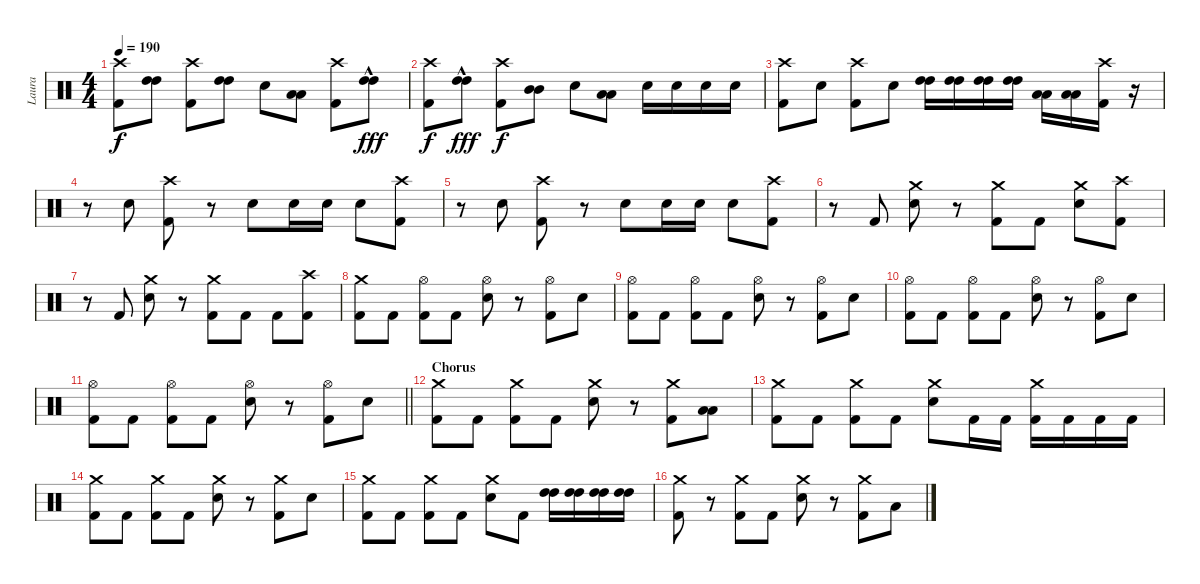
\track ("Laura" "Laura") {instrument percussion}
\staff {score}
\articulation defaults
\ts (4 4)
\tempo 190
\clef neutral
\ks c
("Crash high (hit)" "Kick (hit) 2").8{dy f} ("High Tom (hit)" "High Tom (hit)").8 ("Crash high (hit)" "Kick (hit) 2").8 ("High Tom (hit)" "High Tom (hit)").8 "Electric Snare (hit)".8 ("Low Floor Tom (hit)" "Low Floor Tom (hit)").8 ("Crash high (hit)" "Kick (hit) 2").8 ("High Tom (hit)"{hac} "High Tom (hit)"{hac}).8{dy fff} |
("Crash high (hit)" "Kick (hit) 2").8{dy f} ("High Tom (hit)"{hac} "High Tom (hit)"{hac}).8{dy fff} ("Crash high (hit)" "Kick (hit) 2").8{dy f} ("Mid Tom (hit)" "Mid Tom (hit)").8 "Electric Snare (hit)".8 ("Low Tom (hit)" "Low Tom (hit)").8 "Electric Snare (hit)".16 "Electric Snare (hit)".16 "Electric Snare (hit)".16 "Electric Snare (hit)".16 |
("Crash high (hit)" "Kick (hit) 2").8 "Electric Snare (hit)".8 ("Crash high (hit)" "Kick (hit) 2").8 "Electric Snare (hit)".8 ("High Tom (hit)" "High Tom (hit)").16 ("High Tom (hit)" "High Tom (hit)").16 ("High Tom (hit)" "High Tom (hit)").16 ("High Tom (hit)" "High Tom (hit)").16 ("Low Tom (hit)" "Low Tom (hit)").16 ("Low Tom (hit)" "Low Tom (hit)").16 ("Crash high (hit)" "Kick (hit) 2").16 r.16 |
r.8 "Electric Snare (hit)".8 ("Crash high (hit)" "Kick (hit) 2").8 r.8 "Electric Snare (hit)".8 "Electric Snare (hit)".16 "Electric Snare (hit)".16 "Electric Snare (hit)".8 ("Crash high (hit)" "Kick (hit) 2").8 |
r.8 "Electric Snare (hit)".8 ("Crash high (hit)" "Kick (hit) 2").8 r.8 "Electric Snare (hit)".8 "Electric Snare (hit)".16 "Electric Snare (hit)".16 "Electric Snare (hit)".8 ("Crash high (hit)" "Kick (hit) 2").8 |
r.8 "Kick (hit) 2".8 ("Crash medium (hit)" "Electric Snare (hit)").8 r.8 ("Crash medium (hit)" "Kick (hit) 2").8 "Kick (hit) 2".8 ("Crash medium (hit)" "Electric Snare (hit)").8 ("Crash high (hit)" "Kick (hit) 2").8 |
r.8 "Kick (hit) 2".8 ("Crash medium (hit)" "Electric Snare (hit)").8 r.8 ("Crash medium (hit)" "Kick (hit) 2").8 "Kick (hit) 2".8 "Kick (hit) 2".8 ("Crash high (hit)" "Kick (hit) 2").8 |
("Crash medium (hit)" "Kick (hit) 2").8 "Kick (hit) 2".8 ("Hi-Hat (open)" "Kick (hit) 2").8 "Kick (hit) 2".8 ("Hi-Hat (open)" "Electric Snare (hit)").8 r.8 ("Hi-Hat (open)" "Kick (hit) 2").8 "Electric Snare (hit)".8 |
("Hi-Hat (open)" "Kick (hit) 2").8 "Kick (hit) 2".8 ("Hi-Hat (open)" "Kick (hit) 2").8 "Kick (hit) 2".8 ("Hi-Hat (open)" "Electric Snare (hit)").8 r.8 ("Hi-Hat (open)" "Kick (hit) 2").8 "Electric Snare (hit)".8 |
("Hi-Hat (open)" "Kick (hit) 2").8 "Kick (hit) 2".8 ("Hi-Hat (open)" "Kick (hit) 2").8 "Kick (hit) 2".8 ("Hi-Hat (open)" "Electric Snare (hit)").8 r.8 ("Hi-Hat (open)" "Kick (hit) 2").8 "Electric Snare (hit)".8 |
\barLineRight lightlight
("Hi-Hat (open)" "Kick (hit) 2").8 "Kick (hit) 2".8 ("Hi-Hat (open)" "Kick (hit) 2").8 "Kick (hit) 2".8 ("Hi-Hat (open)" "Electric Snare (hit)").8 r.8 ("Hi-Hat (open)" "Kick (hit) 2").8 "Electric Snare (hit)".8 |
\section ("" "Chorus")
("Crash medium (hit)" "Kick (hit) 2").8 "Kick (hit) 2".8 ("Crash medium (hit)" "Kick (hit) 2").8 "Kick (hit) 2".8 ("Crash medium (hit)" "Electric Snare (hit)").8 r.8 ("Crash medium (hit)" "Kick (hit) 2").8 ("Low Tom (hit)" "Low Tom (hit)").8 |
("Crash medium (hit)" "Kick (hit) 2").8 "Kick (hit) 2".8 ("Crash medium (hit)" "Kick (hit) 2").8 "Kick (hit) 2".8 ("Crash medium (hit)" "Electric Snare (hit)").8 "Kick (hit) 2".16 "Kick (hit) 2".16 ("Crash medium (hit)" "Kick (hit) 2").16 "Kick (hit) 2".16 "Kick (hit) 2".16 "Kick (hit) 2".16 |
("Crash medium (hit)" "Kick (hit) 2").8 "Kick (hit) 2".8 ("Crash medium (hit)" "Kick (hit) 2").8 "Kick (hit) 2".8 ("Crash medium (hit)" "Electric Snare (hit)").8 r.8 ("Crash medium (hit)" "Kick (hit) 2").8 "Electric Snare (hit)".8 |
("Crash medium (hit)" "Kick (hit) 2").8 "Kick (hit) 2".8 ("Crash medium (hit)" "Kick (hit) 2").8 "Kick (hit) 2".8 ("Crash medium (hit)" "Electric Snare (hit)").8 "Kick (hit) 2".8 ("High Tom (hit)" "High Tom (hit)").16 ("High Tom (hit)" "High Tom (hit)").16 ("High Tom (hit)" "High Tom (hit)").16 ("High Tom (hit)" "High Tom (hit)").16 |
("Crash medium (hit)" "Kick (hit) 2").8 r.8 ("Crash medium (hit)" "Kick (hit) 2").8 "Kick (hit) 2".8 ("Crash medium (hit)" "Electric Snare (hit)").8 r.8 ("Crash medium (hit)" "Kick (hit) 2").8 "Low Tom (hit)".8
